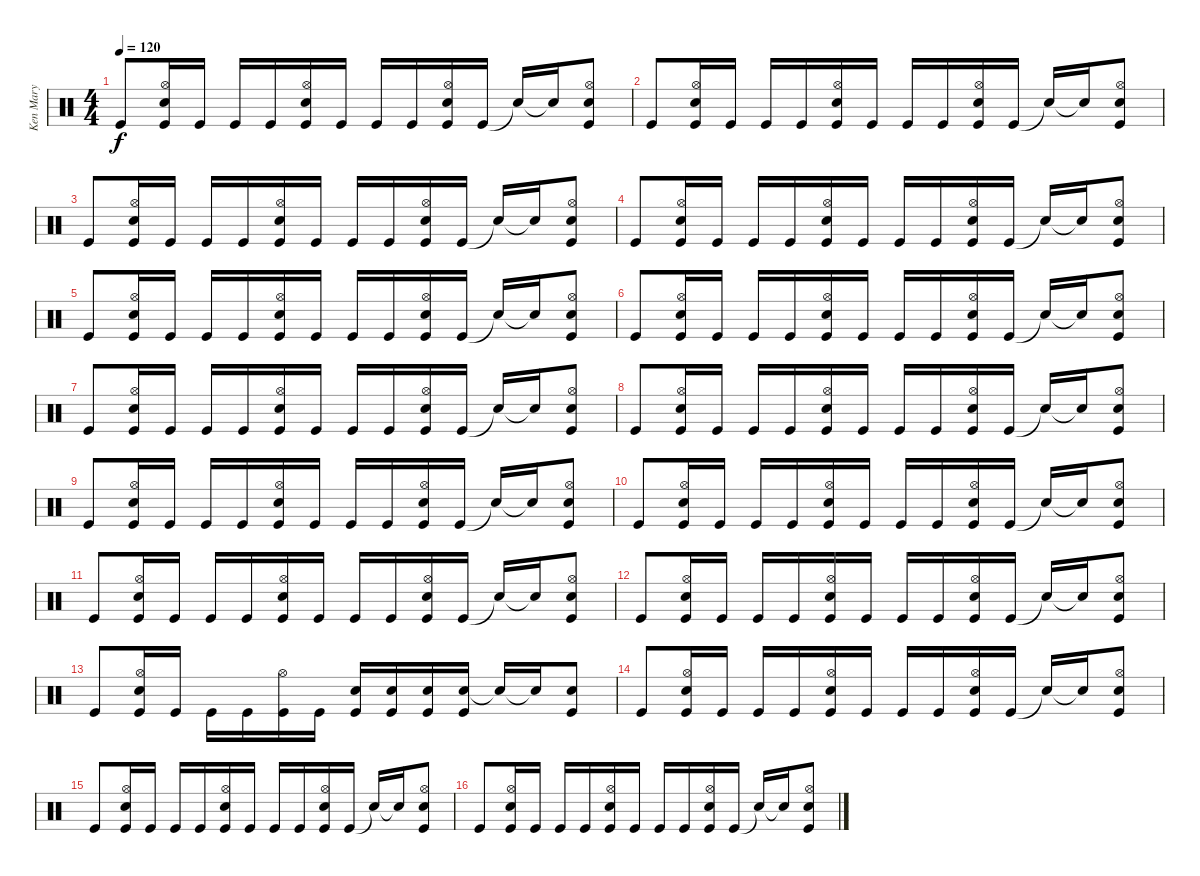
\track ("Ken Mary" "Ken Mary") {instrument percussion}
\staff {score}
\articulation defaults
\ts (4 4)
\tempo 120
\clef neutral
\ks c "Kick (hit)".8{dy f}
("Hi-Hat (open)" "Snare (hit) 2" "Kick (hit)").16 "Kick (hit)".16 "Kick (hit)".16 "Kick (hit)".16 ("Hi-Hat (open)" "Snare (hit) 2" "Kick (hit)").16 "Kick (hit)".16 "Kick (hit)".16 "Kick (hit)".16 ("Hi-Hat (open)" "Snare (hit) 2" "Kick (hit)").16 "Kick (hit)".16 "Snare (hit)"{t}.16 "Snare (hit)"{t}.16 ("Snare (hit) 2" "Hi-Hat (open)" "Kick (hit)").8 |
"Kick (hit)".8 ("Hi-Hat (open)" "Snare (hit) 2" "Kick (hit)").16 "Kick (hit)".16 "Kick (hit)".16 "Kick (hit)".16 ("Hi-Hat (open)" "Snare (hit) 2" "Kick (hit)").16 "Kick (hit)".16 "Kick (hit)".16 "Kick (hit)".16 ("Hi-Hat (open)" "Snare (hit) 2" "Kick (hit)").16 "Kick (hit)".16 "Snare (hit)"{t}.16 "Snare (hit)"{t}.16 ("Snare (hit) 2" "Hi-Hat (open)" "Kick (hit)").8 |
"Kick (hit)".8 ("Hi-Hat (open)" "Snare (hit) 2" "Kick (hit)").16 "Kick (hit)".16 "Kick (hit)".16 "Kick (hit)".16 ("Hi-Hat (open)" "Snare (hit) 2" "Kick (hit)").16 "Kick (hit)".16 "Kick (hit)".16 "Kick (hit)".16 ("Hi-Hat (open)" "Snare (hit) 2" "Kick (hit)").16 "Kick (hit)".16 "Snare (hit)"{t}.16 "Snare (hit)"{t}.16 ("Snare (hit) 2" "Hi-Hat (open)" "Kick (hit)").8 |
"Kick (hit)".8 ("Hi-Hat (open)" "Snare (hit) 2" "Kick (hit)").16 "Kick (hit)".16 "Kick (hit)".16 "Kick (hit)".16 ("Hi-Hat (open)" "Snare (hit) 2" "Kick (hit)").16 "Kick (hit)".16 "Kick (hit)".16 "Kick (hit)".16 ("Hi-Hat (open)" "Snare (hit) 2" "Kick (hit)").16 "Kick (hit)".16 "Snare (hit)"{t}.16 "Snare (hit)"{t}.16 ("Snare (hit) 2" "Hi-Hat (open)" "Kick (hit)").8 |
"Kick (hit)".8 ("Hi-Hat (open)" "Snare (hit) 2" "Kick (hit)").16 "Kick (hit)".16 "Kick (hit)".16 "Kick (hit)".16 ("Hi-Hat (open)" "Snare (hit) 2" "Kick (hit)").16 "Kick (hit)".16 "Kick (hit)".16 "Kick (hit)".16 ("Hi-Hat (open)" "Snare (hit) 2" "Kick (hit)").16 "Kick (hit)".16 "Snare (hit)"{t}.16 "Snare (hit)"{t}.16 ("Snare (hit) 2" "Hi-Hat (open)" "Kick (hit)").8 |
"Kick (hit)".8 ("Hi-Hat (open)" "Snare (hit) 2" "Kick (hit)").16 "Kick (hit)".16 "Kick (hit)".16 "Kick (hit)".16 ("Hi-Hat (open)" "Snare (hit) 2" "Kick (hit)").16 "Kick (hit)".16 "Kick (hit)".16 "Kick (hit)".16 ("Hi-Hat (open)" "Snare (hit) 2" "Kick (hit)").16 "Kick (hit)".16 "Snare (hit)"{t}.16 "Snare (hit)"{t}.16 ("Snare (hit) 2" "Hi-Hat (open)" "Kick (hit)").8 |
"Kick (hit)".8 ("Hi-Hat (open)" "Snare (hit) 2" "Kick (hit)").16 "Kick (hit)".16 "Kick (hit)".16 "Kick (hit)".16 ("Hi-Hat (open)" "Snare (hit) 2" "Kick (hit)").16 "Kick (hit)".16 "Kick (hit)".16 "Kick (hit)".16 ("Hi-Hat (open)" "Snare (hit) 2" "Kick (hit)").16 "Kick (hit)".16 "Snare (hit)"{t}.16 "Snare (hit)"{t}.16 ("Snare (hit) 2" "Hi-Hat (open)" "Kick (hit)").8 |
"Kick (hit)".8 ("Hi-Hat (open)" "Snare (hit) 2" "Kick (hit)").16 "Kick (hit)".16 "Kick (hit)".16 "Kick (hit)".16 ("Hi-Hat (open)" "Snare (hit) 2" "Kick (hit)").16 "Kick (hit)".16 "Kick (hit)".16 "Kick (hit)".16 ("Hi-Hat (open)" "Snare (hit) 2" "Kick (hit)").16 "Kick (hit)".16 "Snare (hit)"{t}.16 "Snare (hit)"{t}.16 ("Snare (hit) 2" "Hi-Hat (open)" "Kick (hit)").8 |
"Kick (hit)".8 ("Hi-Hat (open)" "Snare (hit) 2" "Kick (hit)").16 "Kick (hit)".16 "Kick (hit)".16 "Kick (hit)".16 ("Hi-Hat (open)" "Snare (hit) 2" "Kick (hit)").16 "Kick (hit)".16 "Kick (hit)".16 "Kick (hit)".16 ("Hi-Hat (open)" "Snare (hit) 2" "Kick (hit)").16 "Kick (hit)".16 "Snare (hit)"{t}.16 "Snare (hit)"{t}.16 ("Snare (hit) 2" "Hi-Hat (open)" "Kick (hit)").8 |
"Kick (hit)".8 ("Hi-Hat (open)" "Snare (hit) 2" "Kick (hit)").16 "Kick (hit)".16 "Kick (hit)".16 "Kick (hit)".16 ("Hi-Hat (open)" "Snare (hit) 2" "Kick (hit)").16 "Kick (hit)".16 "Kick (hit)".16 "Kick (hit)".16 ("Hi-Hat (open)" "Snare (hit) 2" "Kick (hit)").16 "Kick (hit)".16 "Snare (hit)"{t}.16 "Snare (hit)"{t}.16 ("Snare (hit) 2" "Hi-Hat (open)" "Kick (hit)").8 |
"Kick (hit)".8 ("Hi-Hat (open)" "Snare (hit) 2" "Kick (hit)").16 "Kick (hit)".16 "Kick (hit)".16 "Kick (hit)".16 ("Hi-Hat (open)" "Snare (hit) 2" "Kick (hit)").16 "Kick (hit)".16 "Kick (hit)".16 "Kick (hit)".16 ("Hi-Hat (open)" "Snare (hit) 2" "Kick (hit)").16 "Kick (hit)".16 "Snare (hit)"{t}.16 "Snare (hit)"{t}.16 ("Snare (hit) 2" "Hi-Hat (open)" "Kick (hit)").8 |
"Kick (hit)".8 ("Hi-Hat (open)" "Snare (hit) 2" "Kick (hit)").16 "Kick (hit)".16 "Kick (hit)".16 "Kick (hit)".16 ("Hi-Hat (open)" "Snare (hit) 2" "Kick (hit)").16 "Kick (hit)".16 "Kick (hit)".16 "Kick (hit)".16 ("Hi-Hat (open)" "Snare (hit) 2" "Kick (hit)").16 "Kick (hit)".16 "Snare (hit)"{t}.16 "Snare (hit)"{t}.16 ("Snare (hit) 2" "Hi-Hat (open)" "Kick (hit)").8 |
"Kick (hit)".8 ("Hi-Hat (open)" "Snare (hit) 2" "Kick (hit)").16 "Kick (hit)".16 "Kick (hit)".16 "Kick (hit)".16 ("Hi-Hat (open)" "Kick (hit)").16 "Kick (hit)".16 ("Snare (hit) 2" "Kick (hit)").16 ("Snare (hit) 2" "Kick (hit)").16 ("Snare (hit) 2" "Kick (hit)").16 ("Snare (hit) 2" "Kick (hit)").16 "Snare (hit)"{t}.16 "Snare (hit)"{t}.16 ("Snare (hit) 2" "Kick (hit)").8 |
"Kick (hit)".8 ("Hi-Hat (open)" "Snare (hit) 2" "Kick (hit)").16 "Kick (hit)".16 "Kick (hit)".16 "Kick (hit)".16 ("Hi-Hat (open)" "Snare (hit) 2" "Kick (hit)").16 "Kick (hit)".16 "Kick (hit)".16 "Kick (hit)".16 ("Hi-Hat (open)" "Snare (hit) 2" "Kick (hit)").16 "Kick (hit)".16 "Snare (hit)"{t}.16 "Snare (hit)"{t}.16 ("Snare (hit) 2" "Hi-Hat (open)" "Kick (hit)").8 |
"Kick (hit)".8 ("Hi-Hat (open)" "Snare (hit) 2" "Kick (hit)").16 "Kick (hit)".16 "Kick (hit)".16 "Kick (hit)".16 ("Hi-Hat (open)" "Snare (hit) 2" "Kick (hit)").16 "Kick (hit)".16 "Kick (hit)".16 "Kick (hit)".16 ("Hi-Hat (open)" "Snare (hit) 2" "Kick (hit)").16 "Kick (hit)".16 "Snare (hit)"{t}.16 "Snare (hit)"{t}.16 ("Snare (hit) 2" "Hi-Hat (open)" "Kick (hit)").8 |
"Kick (hit)".8 ("Hi-Hat (open)" "Snare (hit) 2" "Kick (hit)").16 "Kick (hit)".16 "Kick (hit)".16 "Kick (hit)".16 ("Hi-Hat (open)" "Snare (hit) 2" "Kick (hit)").16 "Kick (hit)".16 "Kick (hit)".16 "Kick (hit)".16 ("Hi-Hat (open)" "Snare (hit) 2" "Kick (hit)").16 "Kick (hit)".16 "Snare (hit)"{t}.16 "Snare (hit)"{t}.16 ("Snare (hit) 2" "Hi-Hat (open)" "Kick (hit)").8
